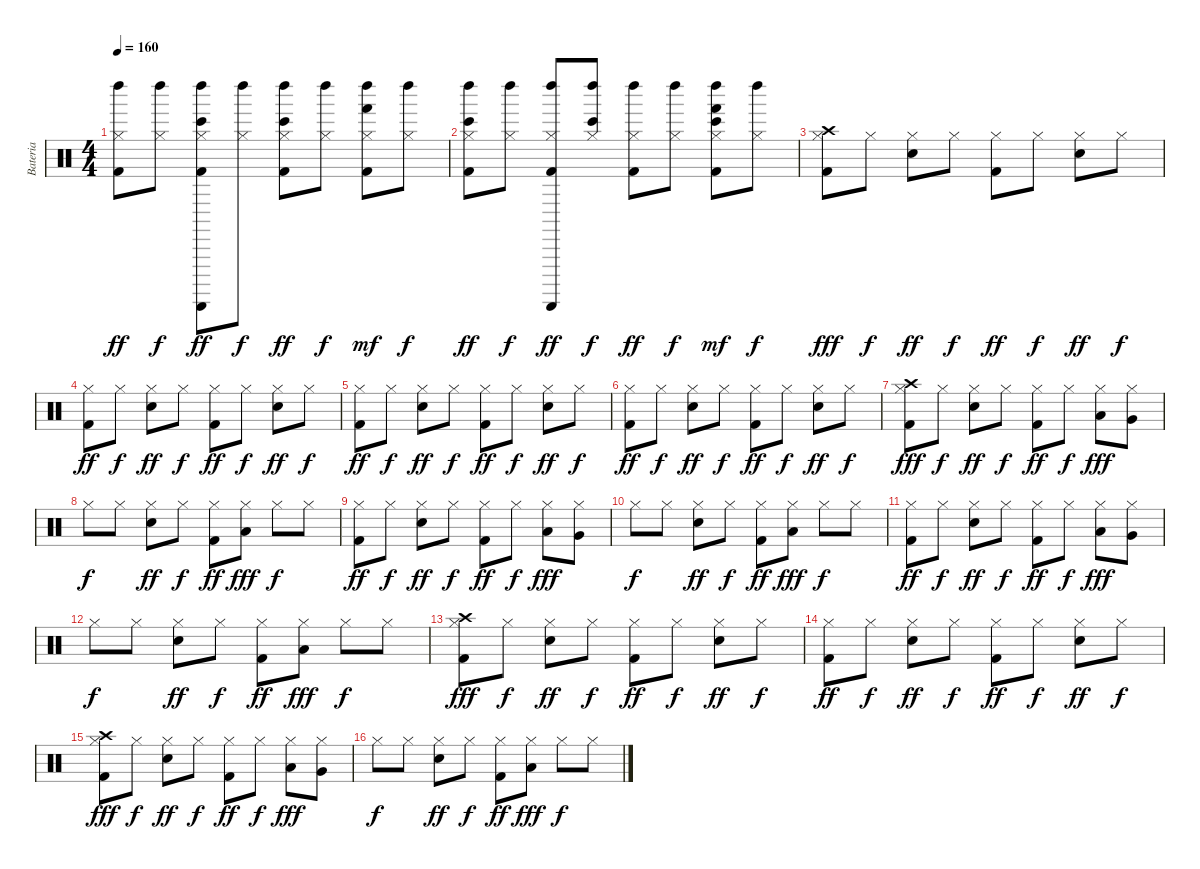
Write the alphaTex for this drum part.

\track ("Bateria" "Bateria") {instrument percussion}
\staff {score}
\articulation defaults
\ts (4 4)
\tempo 160
\clef neutral
\ks c
("Left Maraca (hit)" "Kick (hit) 2" "Hi-Hat (closed)").8{dy ff} ("Left Maraca (hit)" "Hi-Hat (closed)").8{dy f} ("Left Maraca (hit)" "Guiro (scrap-return)" "Hi-Hat (closed)" "Kick (hit) 2" "Bongo High (hit)").8{dy ff} ("Left Maraca (hit)" "Hi-Hat (closed)").8{dy f} ("Left Maraca (hit)" "Hi-Hat (closed)" "Kick (hit) 2" "Bongo High (hit)").8{dy ff} ("Left Maraca (hit)" "Hi-Hat (closed)").8{dy f} ("Left Maraca (hit)" "Hi-Hat (closed)" "Kick (hit) 2" "Hand (hit)").8{dy mf} ("Left Maraca (hit)" "Hi-Hat (closed)").8{dy f} |
("Left Maraca (hit)" "Hi-Hat (closed)" "Kick (hit) 2" "Bongo High (hit)").8{dy ff} ("Left Maraca (hit)" "Hi-Hat (closed)").8{dy f} ("Left Maraca (hit)" "Guiro (scrap-return)" "Kick (hit) 2" "Hi-Hat (closed)").8{dy ff} ("Left Maraca (hit)" "Hi-Hat (closed)" "Bongo High (hit)").8{dy f} ("Left Maraca (hit)" "Kick (hit) 2" "Hi-Hat (closed)").8{dy ff} ("Left Maraca (hit)" "Hi-Hat (closed)").8{dy f} ("Left Maraca (hit)" "Bongo High (hit)" "Hi-Hat (closed)" "Kick (hit) 2" "Hand (hit)").8{dy mf} ("Left Maraca (hit)" "Hi-Hat (closed)").8{dy f} |
("Kick (hit) 2" "Crash high (hit)" "Hi-Hat (closed)").8{dy fff} "Hi-Hat (closed)".8{dy f} ("Hi-Hat (closed)" "Snare (hit) 2").8{dy ff} "Hi-Hat (closed)".8{dy f} ("Kick (hit) 2" "Hi-Hat (closed)").8{dy ff} "Hi-Hat (closed)".8{dy f} ("Hi-Hat (closed)" "Snare (hit) 2").8{dy ff} "Hi-Hat (closed)".8{dy f} |
("Kick (hit) 2" "Hi-Hat (closed)").8{dy ff} "Hi-Hat (closed)".8{dy f} ("Hi-Hat (closed)" "Snare (hit) 2").8{dy ff} "Hi-Hat (closed)".8{dy f} ("Kick (hit) 2" "Hi-Hat (closed)").8{dy ff} "Hi-Hat (closed)".8{dy f} ("Hi-Hat (closed)" "Snare (hit) 2").8{dy ff} "Hi-Hat (closed)".8{dy f} |
("Kick (hit) 2" "Hi-Hat (closed)").8{dy ff} "Hi-Hat (closed)".8{dy f} ("Hi-Hat (closed)" "Snare (hit) 2").8{dy ff} "Hi-Hat (closed)".8{dy f} ("Kick (hit) 2" "Hi-Hat (closed)").8{dy ff} "Hi-Hat (closed)".8{dy f} ("Hi-Hat (closed)" "Snare (hit) 2").8{dy ff} "Hi-Hat (closed)".8{dy f} |
("Kick (hit) 2" "Hi-Hat (closed)").8{dy ff} "Hi-Hat (closed)".8{dy f} ("Hi-Hat (closed)" "Snare (hit) 2").8{dy ff} "Hi-Hat (closed)".8{dy f} ("Kick (hit) 2" "Hi-Hat (closed)").8{dy ff} "Hi-Hat (closed)".8{dy f} ("Hi-Hat (closed)" "Snare (hit) 2").8{dy ff} "Hi-Hat (closed)".8{dy f} |
("Kick (hit) 2" "Crash high (hit)" "Hi-Hat (closed)").8{dy fff} "Hi-Hat (closed)".8{dy f} ("Hi-Hat (closed)" "Snare (hit) 2").8{dy ff} "Hi-Hat (closed)".8{dy f} ("Kick (hit) 2" "Hi-Hat (closed)").8{dy ff} "Hi-Hat (closed)".8{dy f} ("Hi-Hat (closed)" "Low Tom (hit)").8{dy fff} ("Very Low Tom (hit)" "Hi-Hat (closed)").8 |
"Hi-Hat (closed)".8{dy f} "Hi-Hat (closed)".8 ("Hi-Hat (closed)" "Snare (hit) 2").8{dy ff} "Hi-Hat (closed)".8{dy f} ("Kick (hit) 2" "Hi-Hat (closed)").8{dy ff} ("Low Tom (hit)" "Hi-Hat (closed)").8{dy fff} "Hi-Hat (closed)".8{dy f} "Hi-Hat (closed)".8 |
("Kick (hit) 2" "Hi-Hat (closed)").8{dy ff} "Hi-Hat (closed)".8{dy f} ("Hi-Hat (closed)" "Snare (hit) 2").8{dy ff} "Hi-Hat (closed)".8{dy f} ("Kick (hit) 2" "Hi-Hat (closed)").8{dy ff} "Hi-Hat (closed)".8{dy f} ("Hi-Hat (closed)" "Low Tom (hit)").8{dy fff} ("Very Low Tom (hit)" "Hi-Hat (closed)").8 |
"Hi-Hat (closed)".8{dy f} "Hi-Hat (closed)".8 ("Hi-Hat (closed)" "Snare (hit) 2").8{dy ff} "Hi-Hat (closed)".8{dy f} ("Kick (hit) 2" "Hi-Hat (closed)").8{dy ff} ("Low Tom (hit)" "Hi-Hat (closed)").8{dy fff} "Hi-Hat (closed)".8{dy f} "Hi-Hat (closed)".8 |
("Kick (hit) 2" "Hi-Hat (closed)").8{dy ff} "Hi-Hat (closed)".8{dy f} ("Hi-Hat (closed)" "Snare (hit) 2").8{dy ff} "Hi-Hat (closed)".8{dy f} ("Kick (hit) 2" "Hi-Hat (closed)").8{dy ff} "Hi-Hat (closed)".8{dy f} ("Hi-Hat (closed)" "Low Tom (hit)").8{dy fff} ("Very Low Tom (hit)" "Hi-Hat (closed)").8 |
"Hi-Hat (closed)".8{dy f} "Hi-Hat (closed)".8 ("Hi-Hat (closed)" "Snare (hit) 2").8{dy ff} "Hi-Hat (closed)".8{dy f} ("Kick (hit) 2" "Hi-Hat (closed)").8{dy ff} ("Low Tom (hit)" "Hi-Hat (closed)").8{dy fff} "Hi-Hat (closed)".8{dy f} "Hi-Hat (closed)".8 |
("Kick (hit) 2" "Crash high (hit)" "Hi-Hat (closed)").8{dy fff} "Hi-Hat (closed)".8{dy f} ("Hi-Hat (closed)" "Snare (hit) 2").8{dy ff} "Hi-Hat (closed)".8{dy f} ("Kick (hit) 2" "Hi-Hat (closed)").8{dy ff} "Hi-Hat (closed)".8{dy f} ("Hi-Hat (closed)" "Snare (hit) 2").8{dy ff} "Hi-Hat (closed)".8{dy f} |
("Kick (hit) 2" "Hi-Hat (closed)").8{dy ff} "Hi-Hat (closed)".8{dy f} ("Hi-Hat (closed)" "Snare (hit) 2").8{dy ff} "Hi-Hat (closed)".8{dy f} ("Kick (hit) 2" "Hi-Hat (closed)").8{dy ff} "Hi-Hat (closed)".8{dy f} ("Hi-Hat (closed)" "Snare (hit) 2").8{dy ff} "Hi-Hat (closed)".8{dy f} |
("Kick (hit) 2" "Crash high (hit)" "Hi-Hat (closed)").8{dy fff} "Hi-Hat (closed)".8{dy f} ("Hi-Hat (closed)" "Snare (hit) 2").8{dy ff} "Hi-Hat (closed)".8{dy f} ("Kick (hit) 2" "Hi-Hat (closed)").8{dy ff} "Hi-Hat (closed)".8{dy f} ("Hi-Hat (closed)" "Low Tom (hit)").8{dy fff} ("Very Low Tom (hit)" "Hi-Hat (closed)").8 |
"Hi-Hat (closed)".8{dy f} "Hi-Hat (closed)".8 ("Hi-Hat (closed)" "Snare (hit) 2").8{dy ff} "Hi-Hat (closed)".8{dy f} ("Kick (hit) 2" "Hi-Hat (closed)").8{dy ff} ("Low Tom (hit)" "Hi-Hat (closed)").8{dy fff} "Hi-Hat (closed)".8{dy f} "Hi-Hat (closed)".8
